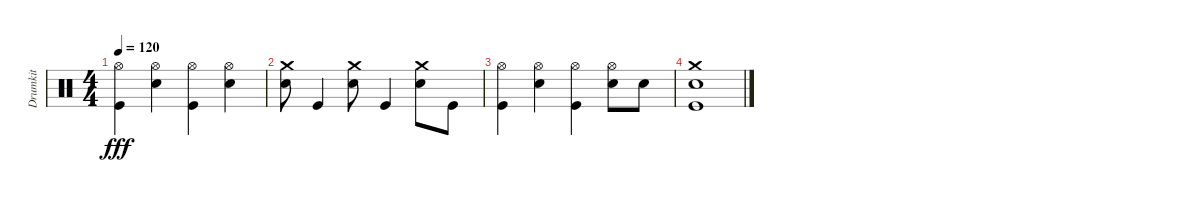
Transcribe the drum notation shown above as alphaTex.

\track ("Drumkit" "Drumkit") {instrument percussion}
\staff {score}
\articulation defaults
\ts (4 4)
\tempo 120
\clef neutral
\ks c
("Kick (hit)" "Hi-Hat (open)").4{dy fff} ("Hi-Hat (open)" "Snare (hit) 2").4 ("Hi-Hat (open)" "Kick (hit)").4 ("Hi-Hat (open)" "Snare (hit) 2").4 |
("Crash medium (hit)" "Snare (hit) 2").8 "Kick (hit)".4 ("Crash medium (hit)" "Snare (hit) 2").8 "Kick (hit)".4 ("Crash medium (hit)" "Snare (hit) 2").8 "Kick (hit)".8 |
("Kick (hit)" "Hi-Hat (open)").4 ("Hi-Hat (open)" "Snare (hit) 2").4 ("Hi-Hat (open)" "Kick (hit)").4 ("Hi-Hat (open)" "Snare (hit) 2").8 "Snare (hit) 2".8 |
("Kick (hit)" "Snare (hit) 2" "Crash medium (hit)").1
